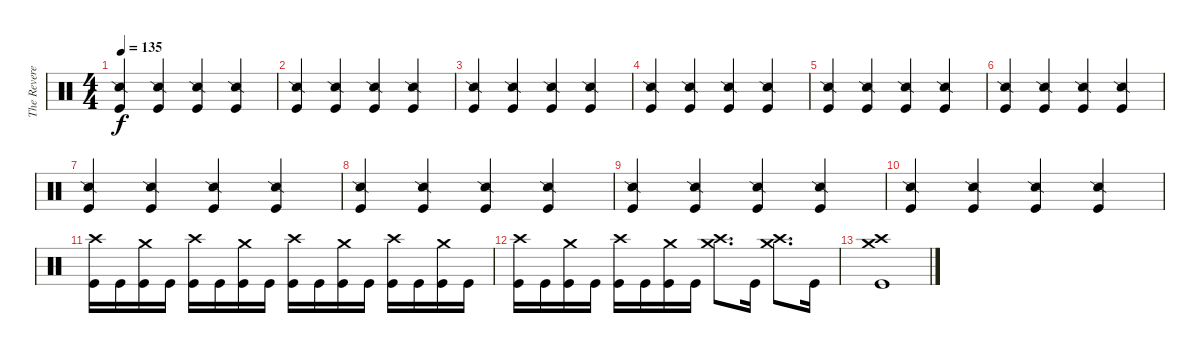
\track ("The Reverend" "The Revere") {instrument percussion}
\staff {score}
\articulation defaults
\ts (4 4)
\tempo 135
\clef neutral
\ks c
("Snare (side stick) 2" "Kick (hit)").4{dy f} ("Snare (side stick) 2" "Kick (hit)").4 ("Snare (side stick) 2" "Kick (hit)").4 ("Snare (side stick) 2" "Kick (hit)").4 |
("Snare (side stick) 2" "Kick (hit)").4 ("Snare (side stick) 2" "Kick (hit)").4 ("Snare (side stick) 2" "Kick (hit)").4 ("Snare (side stick) 2" "Kick (hit)").4 |
("Snare (side stick) 2" "Kick (hit)").4 ("Snare (side stick) 2" "Kick (hit)").4 ("Snare (side stick) 2" "Kick (hit)").4 ("Snare (side stick) 2" "Kick (hit)").4 |
("Snare (side stick) 2" "Kick (hit)").4 ("Snare (side stick) 2" "Kick (hit)").4 ("Snare (side stick) 2" "Kick (hit)").4 ("Snare (side stick) 2" "Kick (hit)").4 |
("Snare (side stick) 2" "Kick (hit)").4 ("Snare (side stick) 2" "Kick (hit)").4 ("Snare (side stick) 2" "Kick (hit)").4 ("Snare (side stick) 2" "Kick (hit)").4 |
("Snare (side stick) 2" "Kick (hit)").4 ("Snare (side stick) 2" "Kick (hit)").4 ("Snare (side stick) 2" "Kick (hit)").4 ("Snare (side stick) 2" "Kick (hit)").4 |
("Snare (side stick) 2" "Kick (hit)").4 ("Snare (side stick) 2" "Kick (hit)").4 ("Snare (side stick) 2" "Kick (hit)").4 ("Snare (side stick) 2" "Kick (hit)").4 |
("Snare (side stick) 2" "Kick (hit)").4 ("Snare (side stick) 2" "Kick (hit)").4 ("Snare (side stick) 2" "Kick (hit)").4 ("Snare (side stick) 2" "Kick (hit)").4 |
("Snare (side stick) 2" "Kick (hit)").4 ("Snare (side stick) 2" "Kick (hit)").4 ("Snare (side stick) 2" "Kick (hit)").4 ("Snare (side stick) 2" "Kick (hit)").4 |
("Snare (side stick) 2" "Kick (hit)").4 ("Snare (side stick) 2" "Kick (hit)").4 ("Snare (side stick) 2" "Kick (hit)").4 ("Snare (side stick) 2" "Kick (hit)").4 |
("Crash high (hit)" "Kick (hit)").16 "Kick (hit)".16 ("Crash medium (hit)" "Kick (hit)").16 "Kick (hit)".16 ("Crash high (hit)" "Kick (hit)").16 "Kick (hit)".16 ("Crash medium (hit)" "Kick (hit)").16 "Kick (hit)".16 ("Crash high (hit)" "Kick (hit)").16 "Kick (hit)".16 ("Crash medium (hit)" "Kick (hit)").16 "Kick (hit)".16 ("Crash high (hit)" "Kick (hit)").16 "Kick (hit)".16 ("Crash medium (hit)" "Kick (hit)").16 "Kick (hit)".16 |
("Crash high (hit)" "Kick (hit)").16 "Kick (hit)".16 ("Crash medium (hit)" "Kick (hit)").16 "Kick (hit)".16 ("Crash high (hit)" "Kick (hit)").16 "Kick (hit)".16 ("Crash medium (hit)" "Kick (hit)").16 "Kick (hit)".16 ("Crash medium (hit)" "Crash high (hit)").8{d} "Kick (hit)".16 ("Crash medium (hit)" "Crash high (hit)").8{d} "Kick (hit)".16 |
("Crash medium (hit)" "Crash high (hit)" "Kick (hit)").1
